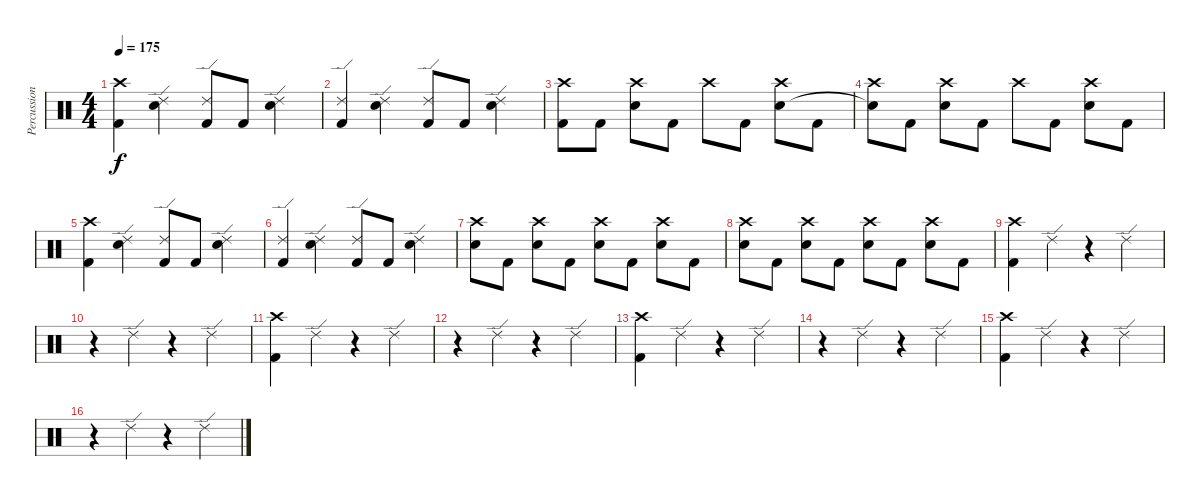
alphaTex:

\track ("Percussion" "Percussion") {instrument percussion}
\staff {score}
\articulation defaults
\ts (4 4)
\tempo 175
\clef neutral
\ks c
("Crash high (hit)" "Kick (hit) 2").4{dy f} ("Ride (edge) 2" "Snare (hit) 2").4 ("Ride (edge) 2" "Kick (hit) 2").8 "Kick (hit) 2".8 ("Ride (edge) 2" "Snare (hit) 2").4 |
("Ride (edge) 2" "Kick (hit) 2").4 ("Ride (edge) 2" "Snare (hit) 2").4 ("Ride (edge) 2" "Kick (hit) 2").8 "Kick (hit) 2".8 ("Ride (edge) 2" "Snare (hit) 2").4 |
("Crash high (hit)" "Kick (hit) 2").8 "Kick (hit) 2".8 ("Crash high (hit)" "Snare (hit) 2").8 "Kick (hit) 2".8 "Crash high (hit)".8 "Kick (hit) 2".8 ("Crash high (hit)" "Snare (hit) 2").8 "Kick (hit) 2".8 |
("Crash high (hit)" "Snare (hit)"{t}).8 "Kick (hit) 2".8 ("Crash high (hit)" "Snare (hit) 2").8 "Kick (hit) 2".8 "Crash high (hit)".8 "Kick (hit) 2".8 ("Crash high (hit)" "Snare (hit) 2").8 "Kick (hit) 2".8 |
("Crash high (hit)" "Kick (hit) 2").4 ("Ride (edge) 2" "Snare (hit) 2").4 ("Ride (edge) 2" "Kick (hit) 2").8 "Kick (hit) 2".8 ("Ride (edge) 2" "Snare (hit) 2").4 |
("Ride (edge) 2" "Kick (hit) 2").4 ("Ride (edge) 2" "Snare (hit) 2").4 ("Ride (edge) 2" "Kick (hit) 2").8 "Kick (hit) 2".8 ("Ride (edge) 2" "Snare (hit) 2").4 |
("Crash high (hit)" "Snare (hit) 2").8 "Kick (hit) 2".8 ("Crash high (hit)" "Snare (hit) 2").8 "Kick (hit) 2".8 ("Crash high (hit)" "Snare (hit) 2").8 "Kick (hit) 2".8 ("Crash high (hit)" "Snare (hit) 2").8 "Kick (hit) 2".8 |
("Crash high (hit)" "Snare (hit) 2").8 "Kick (hit) 2".8 ("Crash high (hit)" "Snare (hit) 2").8 "Kick (hit) 2".8 ("Crash high (hit)" "Snare (hit) 2").8 "Kick (hit) 2".8 ("Crash high (hit)" "Snare (hit) 2").8 "Kick (hit) 2".8 |
("Crash high (hit)" "Kick (hit) 2").4 "Ride (edge) 2".4 r.4 "Ride (edge) 2".4 |
r.4 "Ride (edge) 2".4 r.4 "Ride (edge) 2".4 |
("Crash high (hit)" "Kick (hit) 2").4 "Ride (edge) 2".4 r.4 "Ride (edge) 2".4 |
r.4 "Ride (edge) 2".4 r.4 "Ride (edge) 2".4 |
("Crash high (hit)" "Kick (hit) 2").4 "Ride (edge) 2".4 r.4 "Ride (edge) 2".4 |
r.4 "Ride (edge) 2".4 r.4 "Ride (edge) 2".4 |
("Crash high (hit)" "Kick (hit) 2").4 "Ride (edge) 2".4 r.4 "Ride (edge) 2".4 |
r.4 "Ride (edge) 2".4 r.4 "Ride (edge) 2".4
